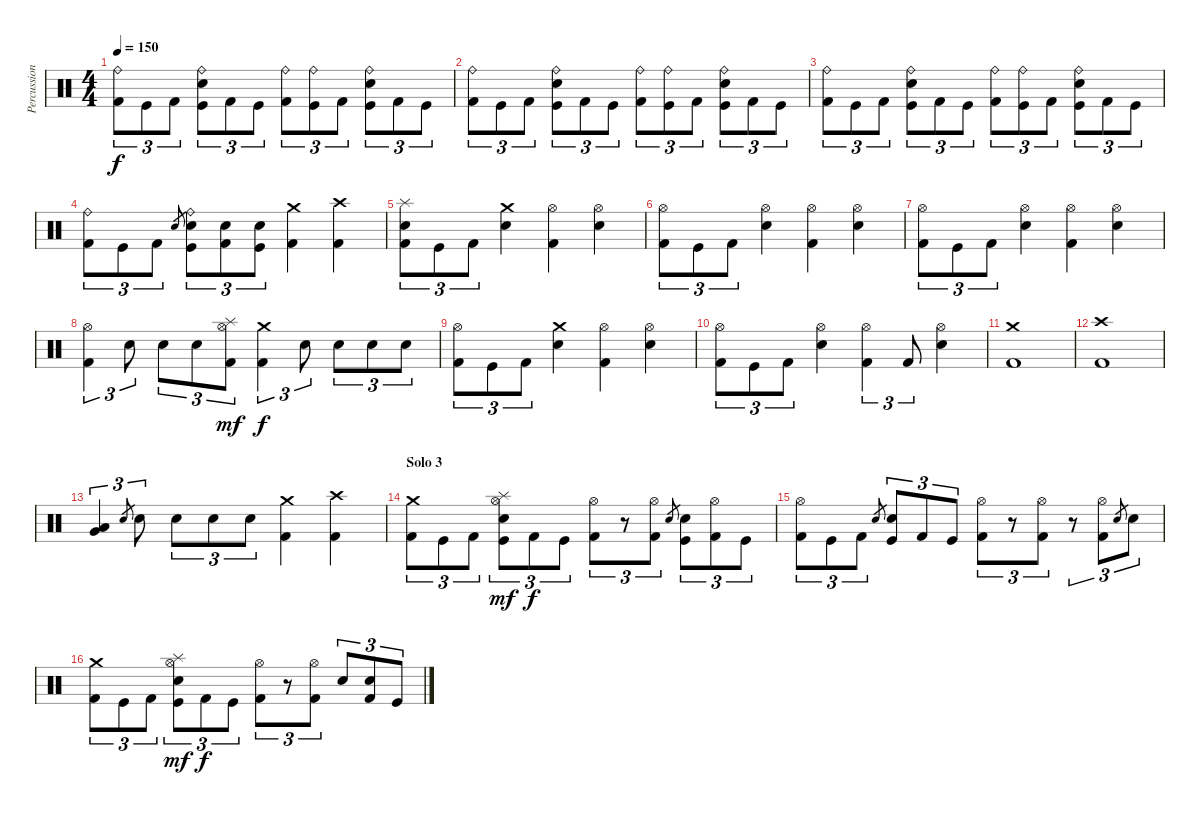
\track ("Percussions" "Percussion") {instrument percussion}
\staff {score}
\articulation defaults
\ts (4 4)
\tempo 150
\clef neutral
\ks c
("Ride (bell)" "Kick (hit) 2").8{tu (3 2) dy f} "Kick (hit)".8{tu (3 2)} "Kick (hit) 2".8{tu (3 2)} ("Ride (bell)" "Electric Snare (hit)" "Kick (hit)").8{tu (3 2)} "Kick (hit) 2".8{tu (3 2)} "Kick (hit)".8{tu (3 2)} ("Ride (bell)" "Kick (hit) 2").8{tu (3 2)} ("Ride (bell)" "Kick (hit)").8{tu (3 2)} "Kick (hit) 2".8{tu (3 2)} ("Ride (bell)" "Electric Snare (hit)" "Kick (hit)").8{tu (3 2)} "Kick (hit) 2".8{tu (3 2)} "Kick (hit)".8{tu (3 2)} |
("Ride (bell)" "Kick (hit) 2").8{tu (3 2)} "Kick (hit)".8{tu (3 2)} "Kick (hit) 2".8{tu (3 2)} ("Ride (bell)" "Electric Snare (hit)" "Kick (hit)").8{tu (3 2)} "Kick (hit) 2".8{tu (3 2)} "Kick (hit)".8{tu (3 2)} ("Ride (bell)" "Kick (hit) 2").8{tu (3 2)} ("Ride (bell)" "Kick (hit)").8{tu (3 2)} "Kick (hit) 2".8{tu (3 2)} ("Ride (bell)" "Electric Snare (hit)" "Kick (hit)").8{tu (3 2)} "Kick (hit) 2".8{tu (3 2)} "Kick (hit)".8{tu (3 2)} |
("Ride (bell)" "Kick (hit) 2").8{tu (3 2)} "Kick (hit)".8{tu (3 2)} "Kick (hit) 2".8{tu (3 2)} ("Ride (bell)" "Electric Snare (hit)" "Kick (hit)").8{tu (3 2)} "Kick (hit) 2".8{tu (3 2)} "Kick (hit)".8{tu (3 2)} ("Ride (bell)" "Kick (hit) 2").8{tu (3 2)} ("Ride (bell)" "Kick (hit)").8{tu (3 2)} "Kick (hit) 2".8{tu (3 2)} ("Ride (bell)" "Electric Snare (hit)" "Kick (hit)").8{tu (3 2)} "Kick (hit) 2".8{tu (3 2)} "Kick (hit)".8{tu (3 2)} |
("Ride (bell)" "Kick (hit) 2").8{tu (3 2)} "Kick (hit)".8{tu (3 2)} "Kick (hit) 2".8{tu (3 2)} "Electric Snare (hit)".8{gr} ("Ride (bell)" "Electric Snare (hit)" "Kick (hit)").8{tu (3 2)} ("Electric Snare (hit)" "Kick (hit) 2").8{tu (3 2)} ("Electric Snare (hit)" "Kick (hit)").8{tu (3 2)} ("Crash medium (hit)" "Kick (hit) 2").4 ("Crash high (hit)" "Kick (hit) 2").4 |
("Splash (hit)" "Electric Snare (hit)" "Kick (hit) 2").8{tu (3 2)} "Kick (hit)".8{tu (3 2)} "Kick (hit) 2".8{tu (3 2)} ("Crash medium (hit)" "Electric Snare (hit)").4 ("Hi-Hat (open)" "Kick (hit) 2").4 ("Hi-Hat (open)" "Electric Snare (hit)").4 |
("Hi-Hat (open)" "Kick (hit) 2").8{tu (3 2)} "Kick (hit)".8{tu (3 2)} "Kick (hit) 2".8{tu (3 2)} ("Hi-Hat (open)" "Electric Snare (hit)").4 ("Hi-Hat (open)" "Kick (hit) 2").4 ("Hi-Hat (open)" "Electric Snare (hit)").4 |
("Hi-Hat (open)" "Kick (hit) 2").8{tu (3 2)} "Kick (hit)".8{tu (3 2)} "Kick (hit) 2".8{tu (3 2)} ("Hi-Hat (open)" "Electric Snare (hit)").4 ("Hi-Hat (open)" "Kick (hit) 2").4 ("Hi-Hat (open)" "Electric Snare (hit)").4 |
("Hi-Hat (open)" "Kick (hit) 2").4{tu (3 2)} "Electric Snare (hit)".8{tu (3 2)} "Electric Snare (hit)".8{tu (3 2)} "Electric Snare (hit)".8{tu (3 2)} ("Hi-Hat (open)" "Splash (hit)" "Kick (hit) 2").8{tu (3 2) dy mf} ("Crash medium (hit)" "Kick (hit) 2").4{tu (3 2) dy f} "Electric Snare (hit)".8{tu (3 2)} "Electric Snare (hit)".8{tu (3 2)} "Electric Snare (hit)".8{tu (3 2)} "Electric Snare (hit)".8{tu (3 2)} |
("Hi-Hat (open)" "Kick (hit) 2").8{tu (3 2)} "Kick (hit)".8{tu (3 2)} "Kick (hit) 2".8{tu (3 2)} ("Crash medium (hit)" "Electric Snare (hit)").4 ("Hi-Hat (open)" "Kick (hit) 2").4 ("Hi-Hat (open)" "Electric Snare (hit)").4 |
("Hi-Hat (open)" "Kick (hit) 2").8{tu (3 2)} "Kick (hit)".8{tu (3 2)} "Kick (hit) 2".8{tu (3 2)} ("Hi-Hat (open)" "Electric Snare (hit)").4 ("Hi-Hat (open)" "Kick (hit) 2").4{tu (3 2)} "Kick (hit) 2".8{tu (3 2)} ("Hi-Hat (open)" "Electric Snare (hit)").4 |
("Crash medium (hit)" "Kick (hit) 2").1 |
("Crash high (hit)" "Kick (hit) 2").1 |
("Low Floor Tom (hit)" "Very Low Tom (hit)").4{tu (3 2)} "Electric Snare (hit)".8{gr} "Electric Snare (hit)".8{tu (3 2)} "Electric Snare (hit)".8{tu (3 2)} "Electric Snare (hit)".8{tu (3 2)} "Electric Snare (hit)".8{tu (3 2)} ("Crash medium (hit)" "Kick (hit) 2").4 ("Crash high (hit)" "Kick (hit) 2").4 |
\section ("" "Solo 3")
("Crash medium (hit)" "Kick (hit) 2").8{tu (3 2)} "Kick (hit)".8{tu (3 2)} "Kick (hit) 2".8{tu (3 2)} ("Hi-Hat (open)" "Splash (hit)" "Electric Snare (hit)" "Kick (hit)").8{tu (3 2) dy mf} "Kick (hit) 2".8{tu (3 2) dy f} "Kick (hit)".8{tu (3 2)} ("Hi-Hat (open)" "Kick (hit) 2").8{tu (3 2)} r.8{tu (3 2)} ("Hi-Hat (open)" "Kick (hit) 2").8{tu (3 2)} "Electric Snare (hit)".8{gr} ("Electric Snare (hit)" "Kick (hit)").8{tu (3 2)} ("Hi-Hat (open)" "Kick (hit) 2").8{tu (3 2)} "Kick (hit)".8{tu (3 2)} |
("Hi-Hat (open)" "Kick (hit) 2").8{tu (3 2)} "Kick (hit)".8{tu (3 2)} "Kick (hit) 2".8{tu (3 2)} "Electric Snare (hit)".8{gr} ("Electric Snare (hit)" "Kick (hit)").8{tu (3 2)} "Kick (hit) 2".8{tu (3 2)} "Kick (hit)".8{tu (3 2)} ("Hi-Hat (open)" "Kick (hit) 2").8{tu (3 2)} r.8{tu (3 2)} ("Hi-Hat (open)" "Kick (hit) 2").8{tu (3 2)} r.8{tu (3 2)} ("Hi-Hat (open)" "Kick (hit) 2").8{tu (3 2)} "Electric Snare (hit)".8{gr} "Electric Snare (hit)".8{tu (3 2)} |
("Crash medium (hit)" "Kick (hit) 2").8{tu (3 2)} "Kick (hit)".8{tu (3 2)} "Kick (hit) 2".8{tu (3 2)} ("Hi-Hat (open)" "Splash (hit)" "Electric Snare (hit)" "Kick (hit)").8{tu (3 2) dy mf} "Kick (hit) 2".8{tu (3 2) dy f} "Kick (hit)".8{tu (3 2)} ("Hi-Hat (open)" "Kick (hit) 2").8{tu (3 2)} r.8{tu (3 2)} ("Hi-Hat (open)" "Kick (hit) 2").8{tu (3 2)} "Electric Snare (hit)".8{tu (3 2)} ("Electric Snare (hit)" "Kick (hit) 2").8{tu (3 2)} "Kick (hit)".8{tu (3 2)}
